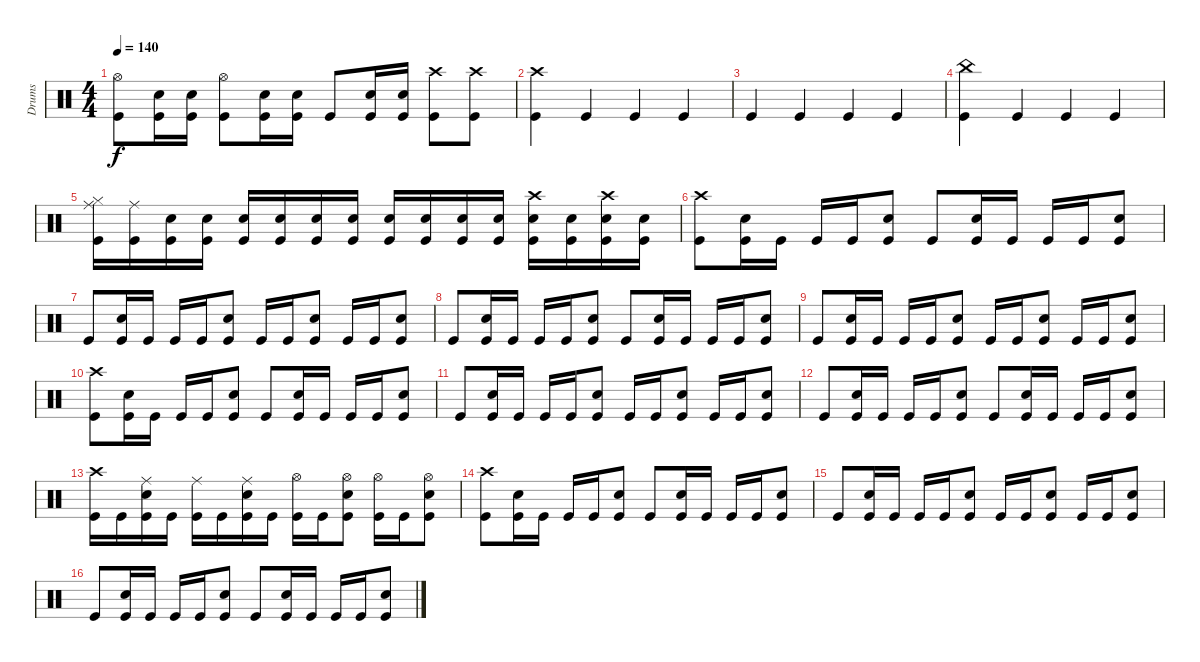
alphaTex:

\track ("Drums" "Drums") {instrument percussion}
\staff {score}
\articulation defaults
\ts (4 4)
\tempo 140
\clef neutral
\ks c
("Kick (hit)" "Hi-Hat (open)").8{dy f} ("Snare (hit) 2" "Kick (hit)").16 ("Snare (hit) 2" "Kick (hit)").16 ("Kick (hit)" "Hi-Hat (open)").8 ("Snare (hit) 2" "Kick (hit)").16 ("Snare (hit) 2" "Kick (hit)").16 "Kick (hit)".8 ("Snare (hit) 2" "Kick (hit)").16 ("Snare (hit) 2" "Kick (hit)").16 ("Kick (hit)" "Crash high (hit)").8 ("Crash high (hit)" "Kick (hit)").8 |
("Crash high (hit)" "Kick (hit)").4 "Kick (hit)".4 "Kick (hit)".4 "Kick (hit)".4 |
"Kick (hit)".4 "Kick (hit)".4 "Kick (hit)".4 "Kick (hit)".4 |
("China (hit)" "Kick (hit)").4 "Kick (hit)".4 "Kick (hit)".4 "Kick (hit)".4 |
("Kick (hit)" "Hi-Hat (closed)" "Ride (middle)").16 ("Kick (hit)" "Ride (middle)").16{volume 4} ("Kick (hit)" "Snare (hit) 2").16{volume 13} ("Kick (hit)" "Snare (hit) 2").16 ("Snare (hit) 2" "Kick (hit)").16 ("Snare (hit) 2" "Kick (hit)").16 ("Kick (hit)" "Snare (hit) 2").16 ("Kick (hit)" "Snare (hit) 2").16 ("Kick (hit)" "Snare (hit) 2").16 ("Snare (hit) 2" "Kick (hit)").16 ("Snare (hit) 2" "Kick (hit)").16 ("Kick (hit)" "Snare (hit) 2").16 ("Kick (hit)" "Snare (hit) 2" "Crash high (hit)").16 ("Kick (hit)" "Snare (hit) 2").16 ("Kick (hit)" "Snare (hit) 2" "Crash high (hit)").16 ("Kick (hit)" "Snare (hit) 2").16 |
("Kick (hit)" "Crash high (hit)").8 ("Snare (hit) 2" "Kick (hit)").16 "Kick (hit)".16 "Kick (hit)".16 "Kick (hit)".16 ("Snare (hit) 2" "Kick (hit)").8 "Kick (hit)".8 ("Snare (hit) 2" "Kick (hit)").16 "Kick (hit)".16 "Kick (hit)".16 "Kick (hit)".16 ("Snare (hit) 2" "Kick (hit)").8 |
"Kick (hit)".8 ("Snare (hit) 2" "Kick (hit)").16 "Kick (hit)".16 "Kick (hit)".16 "Kick (hit)".16 ("Snare (hit) 2" "Kick (hit)").8 "Kick (hit)".16 "Kick (hit)".16 ("Snare (hit) 2" "Kick (hit)").8 "Kick (hit)".16 "Kick (hit)".16 ("Snare (hit) 2" "Kick (hit)").8 |
"Kick (hit)".8 ("Snare (hit) 2" "Kick (hit)").16 "Kick (hit)".16 "Kick (hit)".16 "Kick (hit)".16 ("Snare (hit) 2" "Kick (hit)").8 "Kick (hit)".8 ("Snare (hit) 2" "Kick (hit)").16 "Kick (hit)".16 "Kick (hit)".16 "Kick (hit)".16 ("Snare (hit) 2" "Kick (hit)").8 |
"Kick (hit)".8 ("Snare (hit) 2" "Kick (hit)").16 "Kick (hit)".16 "Kick (hit)".16 "Kick (hit)".16 ("Snare (hit) 2" "Kick (hit)").8 "Kick (hit)".16 "Kick (hit)".16 ("Snare (hit) 2" "Kick (hit)").8 "Kick (hit)".16 "Kick (hit)".16 ("Snare (hit) 2" "Kick (hit)").8 |
("Kick (hit)" "Crash high (hit)").8 ("Snare (hit) 2" "Kick (hit)").16 "Kick (hit)".16 "Kick (hit)".16 "Kick (hit)".16 ("Snare (hit) 2" "Kick (hit)").8 "Kick (hit)".8 ("Snare (hit) 2" "Kick (hit)").16 "Kick (hit)".16 "Kick (hit)".16 "Kick (hit)".16 ("Snare (hit) 2" "Kick (hit)").8 |
"Kick (hit)".8 ("Snare (hit) 2" "Kick (hit)").16 "Kick (hit)".16 "Kick (hit)".16 "Kick (hit)".16 ("Snare (hit) 2" "Kick (hit)").8 "Kick (hit)".16 "Kick (hit)".16 ("Snare (hit) 2" "Kick (hit)").8 "Kick (hit)".16 "Kick (hit)".16 ("Snare (hit) 2" "Kick (hit)").8 |
"Kick (hit)".8 ("Snare (hit) 2" "Kick (hit)").16 "Kick (hit)".16 "Kick (hit)".16 "Kick (hit)".16 ("Snare (hit) 2" "Kick (hit)").8 "Kick (hit)".8 ("Snare (hit) 2" "Kick (hit)").16 "Kick (hit)".16 "Kick (hit)".16 "Kick (hit)".16 ("Snare (hit) 2" "Kick (hit)").8 |
("Crash high (hit)" "Kick (hit)").16 "Kick (hit)".16 ("Ride (middle)" "Kick (hit)" "Snare (hit) 2").16 "Kick (hit)".16 ("Ride (middle)" "Kick (hit)").16 "Kick (hit)".16 ("Ride (middle)" "Kick (hit)" "Snare (hit) 2").16 "Kick (hit)".16 ("Kick (hit)" "Hi-Hat (open)").16 "Kick (hit)".16 ("Snare (hit) 2" "Kick (hit)" "Hi-Hat (open)").8 ("Kick (hit)" "Hi-Hat (open)").16 "Kick (hit)".16 ("Snare (hit) 2" "Kick (hit)" "Hi-Hat (open)").8 |
("Kick (hit)" "Crash high (hit)").8 ("Snare (hit) 2" "Kick (hit)").16 "Kick (hit)".16 "Kick (hit)".16 "Kick (hit)".16 ("Snare (hit) 2" "Kick (hit)").8 "Kick (hit)".8 ("Snare (hit) 2" "Kick (hit)").16 "Kick (hit)".16 "Kick (hit)".16 "Kick (hit)".16 ("Snare (hit) 2" "Kick (hit)").8 |
"Kick (hit)".8 ("Snare (hit) 2" "Kick (hit)").16 "Kick (hit)".16 "Kick (hit)".16 "Kick (hit)".16 ("Snare (hit) 2" "Kick (hit)").8 "Kick (hit)".16 "Kick (hit)".16 ("Snare (hit) 2" "Kick (hit)").8 "Kick (hit)".16 "Kick (hit)".16 ("Snare (hit) 2" "Kick (hit)").8 |
"Kick (hit)".8 ("Snare (hit) 2" "Kick (hit)").16 "Kick (hit)".16 "Kick (hit)".16 "Kick (hit)".16 ("Snare (hit) 2" "Kick (hit)").8 "Kick (hit)".8 ("Snare (hit) 2" "Kick (hit)").16 "Kick (hit)".16 "Kick (hit)".16 "Kick (hit)".16 ("Snare (hit) 2" "Kick (hit)").8
